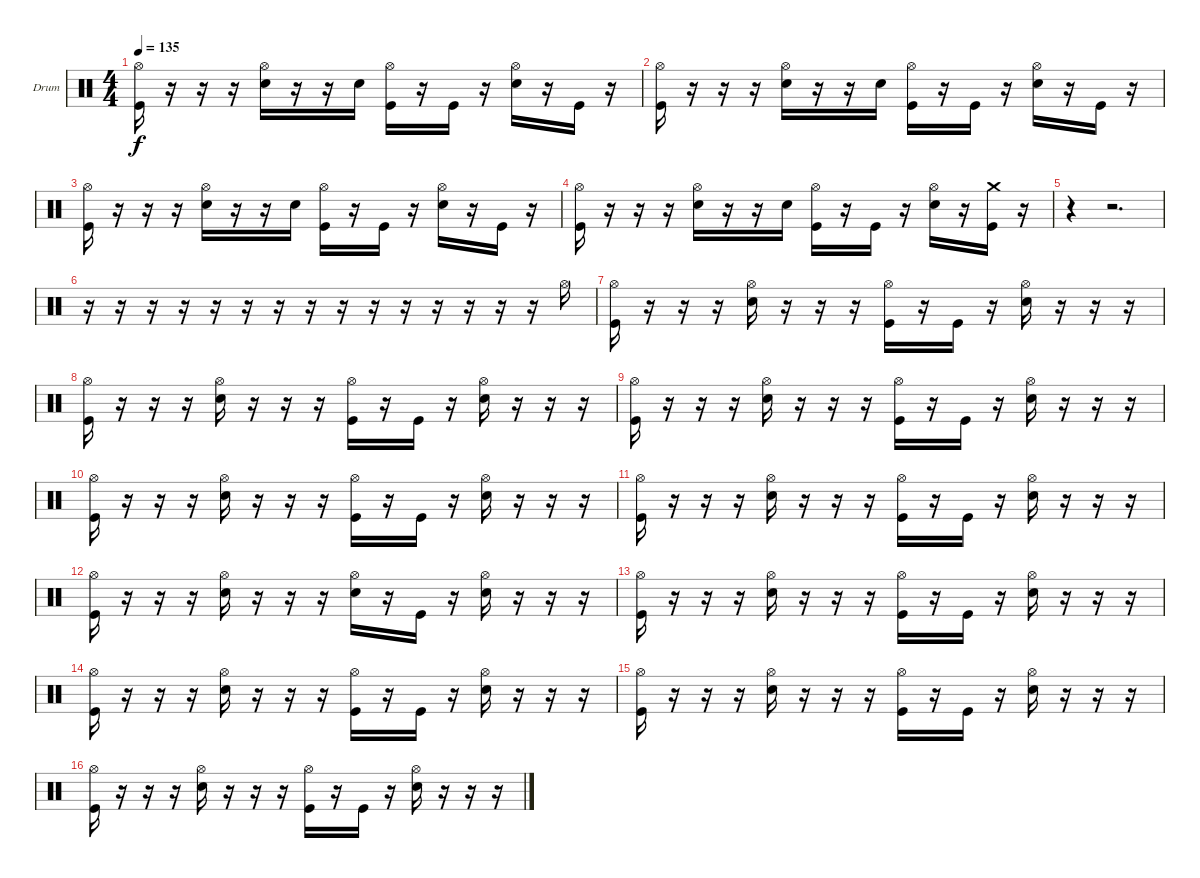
\defaultSystemsLayout 4
\bracketExtendMode groupsimilarinstruments
\firstSystemTrackNameOrientation horizontal
\otherSystemsTrackNameOrientation horizontal
\track ("Drum" "Drum") {instrument percussion}
\staff {score}
\articulation defaults
\ts (4 4)
\tempo 135
\clef neutral
\ks c
("Hi-Hat (open)" "Kick (hit)").16{dy f} r.16 r.16 r.16 ("Hi-Hat (open)" "Snare (hit) 2").16 r.16 r.16 "Snare (hit) 2".16 ("Hi-Hat (open)" "Kick (hit)").16 r.16 "Kick (hit)".16 r.16 ("Hi-Hat (open)" "Snare (hit) 2").16 r.16 "Kick (hit)".16 r.16 |
("Hi-Hat (open)" "Kick (hit)").16 r.16 r.16 r.16 ("Hi-Hat (open)" "Snare (hit) 2").16 r.16 r.16 "Snare (hit) 2".16 ("Hi-Hat (open)" "Kick (hit)").16 r.16 "Kick (hit)".16 r.16 ("Hi-Hat (open)" "Snare (hit) 2").16 r.16 "Kick (hit)".16 r.16 |
("Hi-Hat (open)" "Kick (hit)").16 r.16 r.16 r.16 ("Hi-Hat (open)" "Snare (hit) 2").16 r.16 r.16 "Snare (hit) 2".16 ("Hi-Hat (open)" "Kick (hit)").16 r.16 "Kick (hit)".16 r.16 ("Hi-Hat (open)" "Snare (hit) 2").16 r.16 "Kick (hit)".16 r.16 |
("Hi-Hat (open)" "Kick (hit)").16 r.16 r.16 r.16 ("Hi-Hat (open)" "Snare (hit) 2").16 r.16 r.16 "Snare (hit) 2".16 ("Hi-Hat (open)" "Kick (hit)").16 r.16 "Kick (hit)".16 r.16 ("Hi-Hat (open)" "Snare (hit) 2").16 r.16 ("Crash medium (hit)" "Kick (hit)").16 r.16 |
r.4 r.2{d} |
r.16 r.16 r.16 r.16 r.16 r.16 r.16 r.16 r.16 r.16 r.16 r.16 r.16 r.16 r.16 "Hi-Hat (open)".16 |
("Hi-Hat (open)" "Kick (hit)").16 r.16 r.16 r.16 ("Hi-Hat (open)" "Snare (hit) 2").16 r.16 r.16 r.16 ("Hi-Hat (open)" "Kick (hit)").16 r.16 "Kick (hit)".16 r.16 ("Hi-Hat (open)" "Snare (hit) 2").16 r.16 r.16 r.16 |
("Hi-Hat (open)" "Kick (hit)").16 r.16 r.16 r.16 ("Hi-Hat (open)" "Snare (hit) 2").16 r.16 r.16 r.16 ("Hi-Hat (open)" "Kick (hit)").16 r.16 "Kick (hit)".16 r.16 ("Hi-Hat (open)" "Snare (hit) 2").16 r.16 r.16 r.16 |
("Hi-Hat (open)" "Kick (hit)").16 r.16 r.16 r.16 ("Hi-Hat (open)" "Snare (hit) 2").16 r.16 r.16 r.16 ("Hi-Hat (open)" "Kick (hit)").16 r.16 "Kick (hit)".16 r.16 ("Hi-Hat (open)" "Snare (hit) 2").16 r.16 r.16 r.16 |
("Hi-Hat (open)" "Kick (hit)").16 r.16 r.16 r.16 ("Hi-Hat (open)" "Snare (hit) 2").16 r.16 r.16 r.16 ("Hi-Hat (open)" "Kick (hit)").16 r.16 "Kick (hit)".16 r.16 ("Hi-Hat (open)" "Snare (hit) 2").16 r.16 r.16 r.16 |
("Hi-Hat (open)" "Kick (hit)").16 r.16 r.16 r.16 ("Hi-Hat (open)" "Snare (hit) 2").16 r.16 r.16 r.16 ("Hi-Hat (open)" "Kick (hit)").16 r.16 "Kick (hit)".16 r.16 ("Hi-Hat (open)" "Snare (hit) 2").16 r.16 r.16 r.16 |
("Hi-Hat (open)" "Kick (hit)").16 r.16 r.16 r.16 ("Hi-Hat (open)" "Snare (hit) 2").16 r.16 r.16 r.16 ("Hi-Hat (open)" "Snare (hit) 2").16 r.16 "Kick (hit)".16 r.16 ("Hi-Hat (open)" "Snare (hit) 2").16 r.16 r.16 r.16 |
("Hi-Hat (open)" "Kick (hit)").16 r.16 r.16 r.16 ("Hi-Hat (open)" "Snare (hit) 2").16 r.16 r.16 r.16 ("Hi-Hat (open)" "Kick (hit)").16 r.16 "Kick (hit)".16 r.16 ("Hi-Hat (open)" "Snare (hit) 2").16 r.16 r.16 r.16 |
("Hi-Hat (open)" "Kick (hit)").16 r.16 r.16 r.16 ("Hi-Hat (open)" "Snare (hit) 2").16 r.16 r.16 r.16 ("Hi-Hat (open)" "Kick (hit)").16 r.16 "Kick (hit)".16 r.16 ("Hi-Hat (open)" "Snare (hit) 2").16 r.16 r.16 r.16 |
("Hi-Hat (open)" "Kick (hit)").16 r.16 r.16 r.16 ("Hi-Hat (open)" "Snare (hit) 2").16 r.16 r.16 r.16 ("Hi-Hat (open)" "Kick (hit)").16 r.16 "Kick (hit)".16 r.16 ("Hi-Hat (open)" "Snare (hit) 2").16 r.16 r.16 r.16 |
("Hi-Hat (open)" "Kick (hit)").16 r.16 r.16 r.16 ("Hi-Hat (open)" "Snare (hit) 2").16 r.16 r.16 r.16 ("Hi-Hat (open)" "Kick (hit)").16 r.16 "Kick (hit)".16 r.16 ("Hi-Hat (open)" "Snare (hit) 2").16 r.16 r.16 r.16
